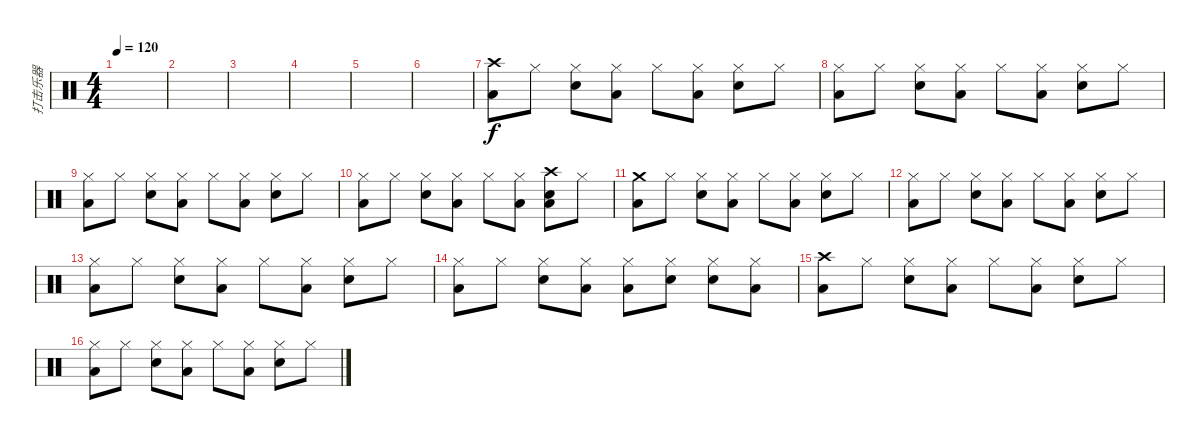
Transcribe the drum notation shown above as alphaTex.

\track ("打击乐器" "打击乐器") {instrument percussion}
\staff {score}
\articulation defaults
\ts (4 4)
\tempo 120
\clef neutral
\ks c
|
|
|
|
|
|
("Crash high (hit)" "Low Floor Tom (hit)").8 "Hi-Hat (closed)".8 ("Hi-Hat (closed)" "Electric Snare (hit)").8 ("Hi-Hat (closed)" "Low Floor Tom (hit)").8 "Hi-Hat (closed)".8 ("Hi-Hat (closed)" "Low Floor Tom (hit)").8 ("Hi-Hat (closed)" "Electric Snare (hit)").8 "Hi-Hat (closed)".8 |
("Hi-Hat (closed)" "Low Floor Tom (hit)").8 "Hi-Hat (closed)".8 ("Hi-Hat (closed)" "Electric Snare (hit)").8 ("Hi-Hat (closed)" "Low Floor Tom (hit)").8 "Hi-Hat (closed)".8 ("Hi-Hat (closed)" "Low Floor Tom (hit)").8 ("Hi-Hat (closed)" "Electric Snare (hit)").8 "Hi-Hat (closed)".8 |
("Hi-Hat (closed)" "Low Floor Tom (hit)").8 "Hi-Hat (closed)".8 ("Hi-Hat (closed)" "Electric Snare (hit)").8 ("Hi-Hat (closed)" "Low Floor Tom (hit)").8 "Hi-Hat (closed)".8 ("Hi-Hat (closed)" "Low Floor Tom (hit)").8 ("Hi-Hat (closed)" "Electric Snare (hit)").8 "Hi-Hat (closed)".8 |
("Hi-Hat (closed)" "Low Floor Tom (hit)").8 "Hi-Hat (closed)".8 ("Hi-Hat (closed)" "Electric Snare (hit)").8 ("Hi-Hat (closed)" "Low Floor Tom (hit)").8 "Hi-Hat (closed)".8 ("Hi-Hat (closed)" "Low Floor Tom (hit)").8 ("Crash high (hit)" "Electric Snare (hit)" "Low Floor Tom (hit)").8 "Hi-Hat (closed)".8 |
("Crash medium (hit)" "Low Floor Tom (hit)").8 "Hi-Hat (closed)".8 ("Hi-Hat (closed)" "Electric Snare (hit)").8 ("Hi-Hat (closed)" "Low Floor Tom (hit)").8 "Hi-Hat (closed)".8 ("Hi-Hat (closed)" "Low Floor Tom (hit)").8 ("Hi-Hat (closed)" "Electric Snare (hit)").8 "Hi-Hat (closed)".8 |
("Hi-Hat (closed)" "Low Floor Tom (hit)").8 "Hi-Hat (closed)".8 ("Hi-Hat (closed)" "Electric Snare (hit)").8 ("Hi-Hat (closed)" "Low Floor Tom (hit)").8 "Hi-Hat (closed)".8 ("Hi-Hat (closed)" "Low Floor Tom (hit)").8 ("Hi-Hat (closed)" "Electric Snare (hit)").8 "Hi-Hat (closed)".8 |
("Hi-Hat (closed)" "Low Floor Tom (hit)").8 "Hi-Hat (closed)".8 ("Hi-Hat (closed)" "Electric Snare (hit)").8 ("Hi-Hat (closed)" "Low Floor Tom (hit)").8 "Hi-Hat (closed)".8 ("Hi-Hat (closed)" "Low Floor Tom (hit)").8 ("Hi-Hat (closed)" "Electric Snare (hit)").8 "Hi-Hat (closed)".8 |
("Hi-Hat (closed)" "Low Floor Tom (hit)").8 "Hi-Hat (closed)".8 ("Hi-Hat (closed)" "Electric Snare (hit)").8 ("Hi-Hat (closed)" "Low Floor Tom (hit)").8 ("Hi-Hat (closed)" "Low Floor Tom (hit)").8 ("Hi-Hat (closed)" "Electric Snare (hit)").8 ("Hi-Hat (closed)" "Electric Snare (hit)").8 ("Hi-Hat (closed)" "Low Floor Tom (hit)").8 |
("Crash high (hit)" "Low Floor Tom (hit)").8 "Hi-Hat (closed)".8 ("Hi-Hat (closed)" "Electric Snare (hit)").8 ("Hi-Hat (closed)" "Low Floor Tom (hit)").8 "Hi-Hat (closed)".8 ("Hi-Hat (closed)" "Low Floor Tom (hit)").8 ("Hi-Hat (closed)" "Electric Snare (hit)").8 "Hi-Hat (closed)".8 |
("Hi-Hat (closed)" "Low Floor Tom (hit)").8 "Hi-Hat (closed)".8 ("Hi-Hat (closed)" "Electric Snare (hit)").8 ("Hi-Hat (closed)" "Low Floor Tom (hit)").8 "Hi-Hat (closed)".8 ("Hi-Hat (closed)" "Low Floor Tom (hit)").8 ("Hi-Hat (closed)" "Electric Snare (hit)").8 "Hi-Hat (closed)".8
